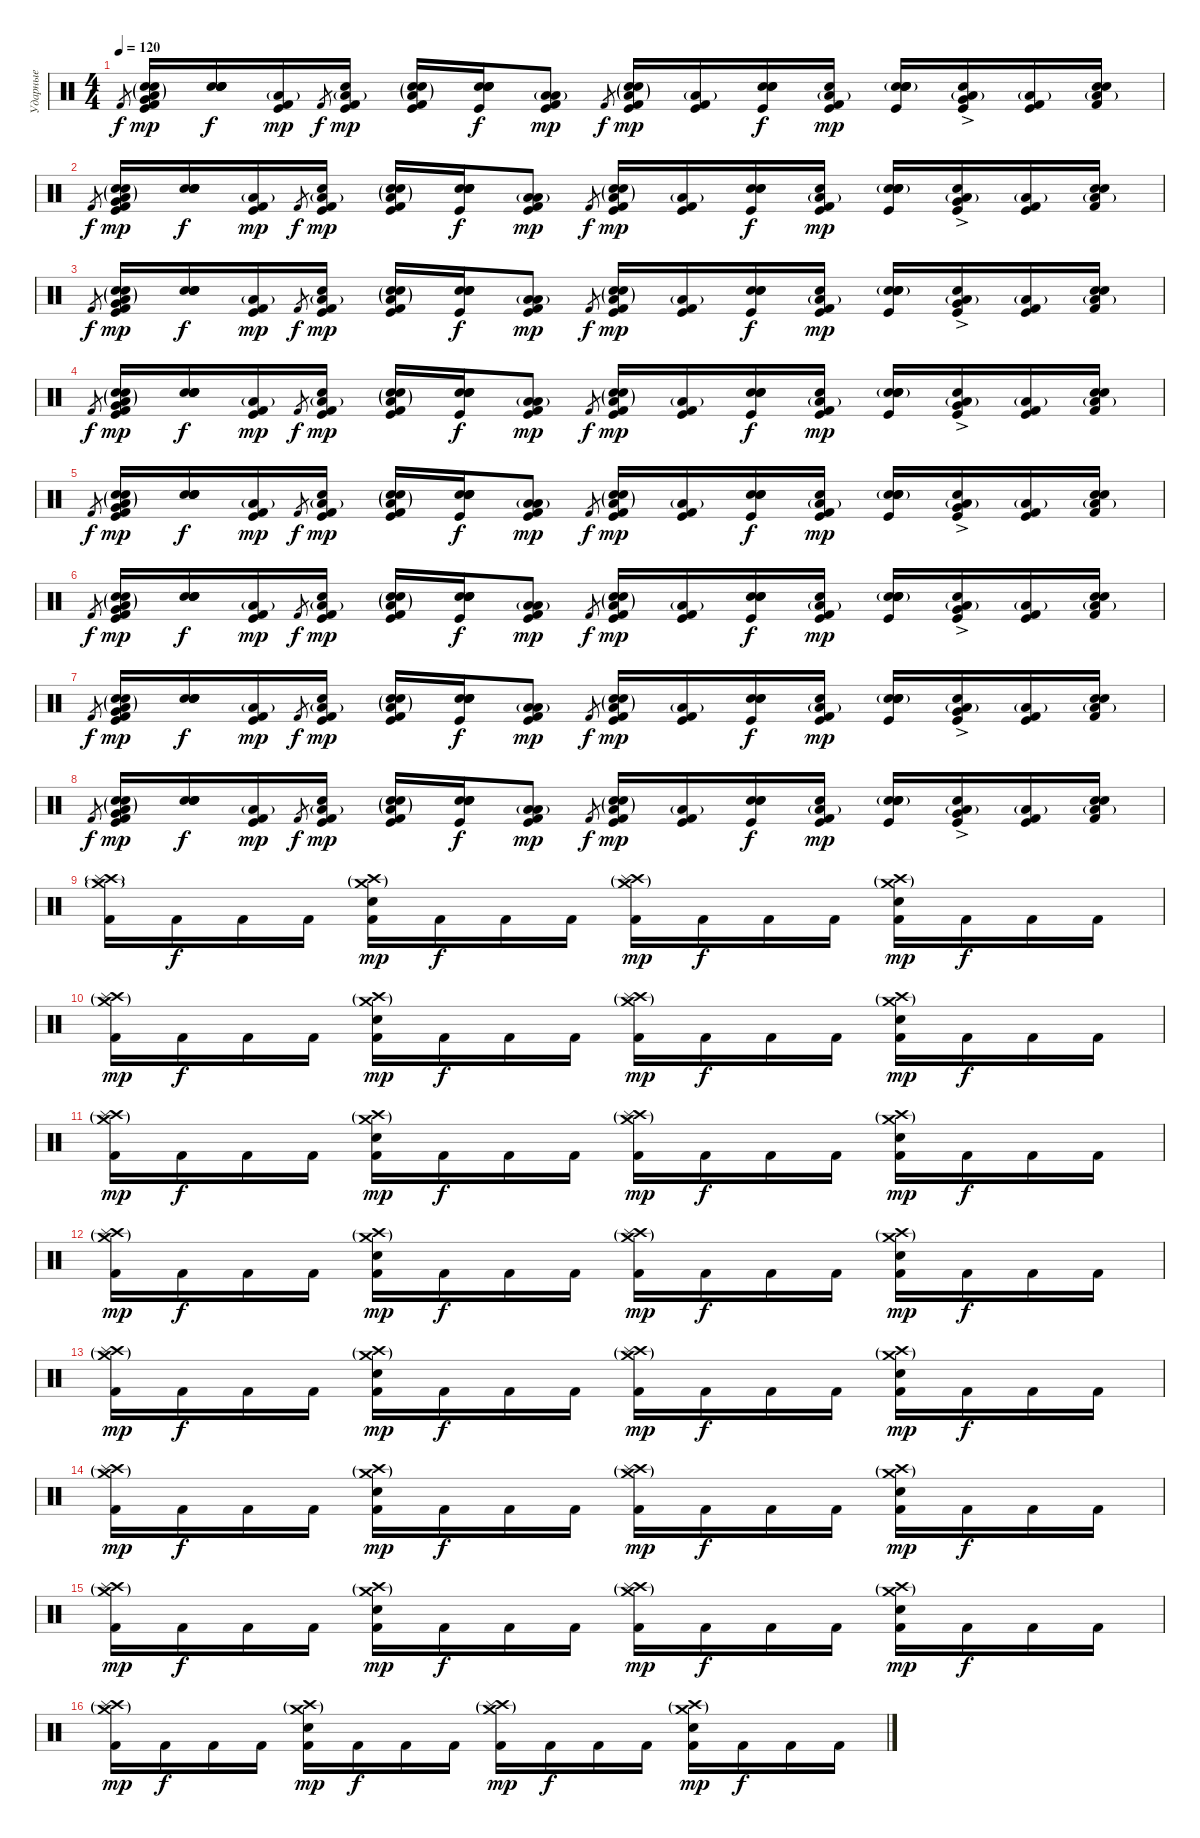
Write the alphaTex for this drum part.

\track ("Ударные" "Ударные") {instrument percussion bank 2}
\staff {score}
\articulation defaults
\ts (4 4)
\tempo 120
\clef neutral
\ks c "Kick (hit) 2".8{gr dy f}
("Kick (hit) 2" "Very Low Tom (hit)" "Kick (hit)" "Snare (hit) 2" "Low Floor Tom (hit)"{g} "Electric Snare (hit)"{g}).16{dy mp} ("Snare (hit)" "Snare (hit)" "Snare (hit)" "Snare (hit)").16{dy f} ("Kick (hit) 2" "Kick (hit)" "Low Floor Tom (hit)"{g}).16{dy mp} "Kick (hit) 2".8{gr dy f} ("Kick (hit) 2" "Kick (hit)" "Snare (hit)" "Low Floor Tom (hit)"{g}).16{dy mp} ("Kick (hit) 2" "Kick (hit)" "Snare (hit) 2" "Low Floor Tom (hit)"{g} "Electric Snare (hit)"{g}).16 ("Snare (hit)" "Snare (hit)" "Kick (hit)" "Snare (hit)" "Snare (hit)").16{dy f} ("Kick (hit) 2" "Low Tom (hit)" "Kick (hit)" "Low Floor Tom (hit)"{g}).8{dy mp} "Kick (hit) 2".8{gr dy f} ("Kick (hit) 2" "Kick (hit)" "Snare (hit) 2" "Low Floor Tom (hit)"{g} "Electric Snare (hit)"{g}).16{dy mp} ("Kick (hit) 2" "Kick (hit)" "Low Floor Tom (hit)"{g}).16 ("Snare (hit)" "Kick (hit)" "Snare (hit)" "Snare (hit)").16{dy f} ("Kick (hit) 2" "Kick (hit)" "Snare (hit)" "Low Floor Tom (hit)"{g}).16{dy mp} ("Snare (hit)" "Kick (hit)" "Snare (hit) 2" "Snare (hit)" "Electric Snare (hit)"{g}).16 ("Snare (hit)" "Very Low Tom (hit)" "Kick (hit)"{ac} "Low Floor Tom (hit)"{g}).16 ("Kick (hit) 2" "Kick (hit)" "Low Floor Tom (hit)"{g}).16 ("Kick (hit) 2" "Snare (hit)" "Snare (hit)" "Low Floor Tom (hit)"{g}).16 |
"Kick (hit) 2".8{gr dy f} ("Kick (hit) 2" "Very Low Tom (hit)" "Kick (hit)" "Snare (hit) 2" "Low Floor Tom (hit)"{g} "Electric Snare (hit)"{g}).16{dy mp} ("Snare (hit)" "Snare (hit)" "Snare (hit)" "Snare (hit)").16{dy f} ("Kick (hit) 2" "Kick (hit)" "Low Floor Tom (hit)"{g}).16{dy mp} "Kick (hit) 2".8{gr dy f} ("Kick (hit) 2" "Kick (hit)" "Snare (hit)" "Low Floor Tom (hit)"{g}).16{dy mp} ("Kick (hit) 2" "Kick (hit)" "Snare (hit) 2" "Low Floor Tom (hit)"{g} "Electric Snare (hit)"{g}).16 ("Snare (hit)" "Snare (hit)" "Kick (hit)" "Snare (hit)" "Snare (hit)").16{dy f} ("Kick (hit) 2" "Low Tom (hit)" "Kick (hit)" "Low Floor Tom (hit)"{g}).8{dy mp} "Kick (hit) 2".8{gr dy f} ("Kick (hit) 2" "Kick (hit)" "Snare (hit) 2" "Low Floor Tom (hit)"{g} "Electric Snare (hit)"{g}).16{dy mp} ("Kick (hit) 2" "Kick (hit)" "Low Floor Tom (hit)"{g}).16 ("Snare (hit)" "Kick (hit)" "Snare (hit)" "Snare (hit)").16{dy f} ("Kick (hit) 2" "Kick (hit)" "Snare (hit)" "Low Floor Tom (hit)"{g}).16{dy mp} ("Snare (hit)" "Kick (hit)" "Snare (hit) 2" "Snare (hit)" "Electric Snare (hit)"{g}).16 ("Snare (hit)" "Very Low Tom (hit)" "Kick (hit)"{ac} "Low Floor Tom (hit)"{g}).16 ("Kick (hit) 2" "Kick (hit)" "Low Floor Tom (hit)"{g}).16 ("Kick (hit) 2" "Snare (hit)" "Snare (hit)" "Low Floor Tom (hit)"{g}).16 |
"Kick (hit) 2".8{gr dy f} ("Kick (hit) 2" "Very Low Tom (hit)" "Kick (hit)" "Snare (hit) 2" "Low Floor Tom (hit)"{g} "Electric Snare (hit)"{g}).16{dy mp} ("Snare (hit)" "Snare (hit)" "Snare (hit)" "Snare (hit)").16{dy f} ("Kick (hit) 2" "Kick (hit)" "Low Floor Tom (hit)"{g}).16{dy mp} "Kick (hit) 2".8{gr dy f} ("Kick (hit) 2" "Kick (hit)" "Snare (hit)" "Low Floor Tom (hit)"{g}).16{dy mp} ("Kick (hit) 2" "Kick (hit)" "Snare (hit) 2" "Low Floor Tom (hit)"{g} "Electric Snare (hit)"{g}).16 ("Snare (hit)" "Snare (hit)" "Kick (hit)" "Snare (hit)" "Snare (hit)").16{dy f} ("Kick (hit) 2" "Low Tom (hit)" "Kick (hit)" "Low Floor Tom (hit)"{g}).8{dy mp} "Kick (hit) 2".8{gr dy f} ("Kick (hit) 2" "Kick (hit)" "Snare (hit) 2" "Low Floor Tom (hit)"{g} "Electric Snare (hit)"{g}).16{dy mp} ("Kick (hit) 2" "Kick (hit)" "Low Floor Tom (hit)"{g}).16 ("Snare (hit)" "Kick (hit)" "Snare (hit)" "Snare (hit)").16{dy f} ("Kick (hit) 2" "Kick (hit)" "Snare (hit)" "Low Floor Tom (hit)"{g}).16{dy mp} ("Snare (hit)" "Kick (hit)" "Snare (hit) 2" "Snare (hit)" "Electric Snare (hit)"{g}).16 ("Snare (hit)" "Very Low Tom (hit)" "Kick (hit)"{ac} "Low Floor Tom (hit)"{g}).16 ("Kick (hit) 2" "Kick (hit)" "Low Floor Tom (hit)"{g}).16 ("Kick (hit) 2" "Snare (hit)" "Snare (hit)" "Low Floor Tom (hit)"{g}).16 |
"Kick (hit) 2".8{gr dy f} ("Kick (hit) 2" "Very Low Tom (hit)" "Kick (hit)" "Snare (hit) 2" "Low Floor Tom (hit)"{g} "Electric Snare (hit)"{g}).16{dy mp} ("Snare (hit)" "Snare (hit)" "Snare (hit)" "Snare (hit)").16{dy f} ("Kick (hit) 2" "Kick (hit)" "Low Floor Tom (hit)"{g}).16{dy mp} "Kick (hit) 2".8{gr dy f} ("Kick (hit) 2" "Kick (hit)" "Snare (hit)" "Low Floor Tom (hit)"{g}).16{dy mp} ("Kick (hit) 2" "Kick (hit)" "Snare (hit) 2" "Low Floor Tom (hit)"{g} "Electric Snare (hit)"{g}).16 ("Snare (hit)" "Snare (hit)" "Kick (hit)" "Snare (hit)" "Snare (hit)").16{dy f} ("Kick (hit) 2" "Low Tom (hit)" "Kick (hit)" "Low Floor Tom (hit)"{g}).8{dy mp} "Kick (hit) 2".8{gr dy f} ("Kick (hit) 2" "Kick (hit)" "Snare (hit) 2" "Low Floor Tom (hit)"{g} "Electric Snare (hit)"{g}).16{dy mp} ("Kick (hit) 2" "Kick (hit)" "Low Floor Tom (hit)"{g}).16 ("Snare (hit)" "Kick (hit)" "Snare (hit)" "Snare (hit)").16{dy f} ("Kick (hit) 2" "Kick (hit)" "Snare (hit)" "Low Floor Tom (hit)"{g}).16{dy mp} ("Snare (hit)" "Kick (hit)" "Snare (hit) 2" "Snare (hit)" "Electric Snare (hit)"{g}).16 ("Snare (hit)" "Very Low Tom (hit)" "Kick (hit)"{ac} "Low Floor Tom (hit)"{g}).16 ("Kick (hit) 2" "Kick (hit)" "Low Floor Tom (hit)"{g}).16 ("Kick (hit) 2" "Snare (hit)" "Snare (hit)" "Low Floor Tom (hit)"{g}).16 |
"Kick (hit) 2".8{gr dy f} ("Kick (hit) 2" "Very Low Tom (hit)" "Kick (hit)" "Snare (hit) 2" "Low Floor Tom (hit)"{g} "Electric Snare (hit)"{g}).16{dy mp} ("Snare (hit)" "Snare (hit)" "Snare (hit)" "Snare (hit)").16{dy f} ("Kick (hit) 2" "Kick (hit)" "Low Floor Tom (hit)"{g}).16{dy mp} "Kick (hit) 2".8{gr dy f} ("Kick (hit) 2" "Kick (hit)" "Snare (hit)" "Low Floor Tom (hit)"{g}).16{dy mp} ("Kick (hit) 2" "Kick (hit)" "Snare (hit) 2" "Low Floor Tom (hit)"{g} "Electric Snare (hit)"{g}).16 ("Snare (hit)" "Snare (hit)" "Kick (hit)" "Snare (hit)" "Snare (hit)").16{dy f} ("Kick (hit) 2" "Low Tom (hit)" "Kick (hit)" "Low Floor Tom (hit)"{g}).8{dy mp} "Kick (hit) 2".8{gr dy f} ("Kick (hit) 2" "Kick (hit)" "Snare (hit) 2" "Low Floor Tom (hit)"{g} "Electric Snare (hit)"{g}).16{dy mp} ("Kick (hit) 2" "Kick (hit)" "Low Floor Tom (hit)"{g}).16 ("Snare (hit)" "Kick (hit)" "Snare (hit)" "Snare (hit)").16{dy f} ("Kick (hit) 2" "Kick (hit)" "Snare (hit)" "Low Floor Tom (hit)"{g}).16{dy mp} ("Snare (hit)" "Kick (hit)" "Snare (hit) 2" "Snare (hit)" "Electric Snare (hit)"{g}).16 ("Snare (hit)" "Very Low Tom (hit)" "Kick (hit)"{ac} "Low Floor Tom (hit)"{g}).16 ("Kick (hit) 2" "Kick (hit)" "Low Floor Tom (hit)"{g}).16 ("Kick (hit) 2" "Snare (hit)" "Snare (hit)" "Low Floor Tom (hit)"{g}).16 |
"Kick (hit) 2".8{gr dy f} ("Kick (hit) 2" "Very Low Tom (hit)" "Kick (hit)" "Snare (hit) 2" "Low Floor Tom (hit)"{g} "Electric Snare (hit)"{g}).16{dy mp} ("Snare (hit)" "Snare (hit)" "Snare (hit)" "Snare (hit)").16{dy f} ("Kick (hit) 2" "Kick (hit)" "Low Floor Tom (hit)"{g}).16{dy mp} "Kick (hit) 2".8{gr dy f} ("Kick (hit) 2" "Kick (hit)" "Snare (hit)" "Low Floor Tom (hit)"{g}).16{dy mp} ("Kick (hit) 2" "Kick (hit)" "Snare (hit) 2" "Low Floor Tom (hit)"{g} "Electric Snare (hit)"{g}).16 ("Snare (hit)" "Snare (hit)" "Kick (hit)" "Snare (hit)" "Snare (hit)").16{dy f} ("Kick (hit) 2" "Low Tom (hit)" "Kick (hit)" "Low Floor Tom (hit)"{g}).8{dy mp} "Kick (hit) 2".8{gr dy f} ("Kick (hit) 2" "Kick (hit)" "Snare (hit) 2" "Low Floor Tom (hit)"{g} "Electric Snare (hit)"{g}).16{dy mp} ("Kick (hit) 2" "Kick (hit)" "Low Floor Tom (hit)"{g}).16 ("Snare (hit)" "Kick (hit)" "Snare (hit)" "Snare (hit)").16{dy f} ("Kick (hit) 2" "Kick (hit)" "Snare (hit)" "Low Floor Tom (hit)"{g}).16{dy mp} ("Snare (hit)" "Kick (hit)" "Snare (hit) 2" "Snare (hit)" "Electric Snare (hit)"{g}).16 ("Snare (hit)" "Very Low Tom (hit)" "Kick (hit)"{ac} "Low Floor Tom (hit)"{g}).16 ("Kick (hit) 2" "Kick (hit)" "Low Floor Tom (hit)"{g}).16 ("Kick (hit) 2" "Snare (hit)" "Snare (hit)" "Low Floor Tom (hit)"{g}).16 |
"Kick (hit) 2".8{gr dy f} ("Kick (hit) 2" "Very Low Tom (hit)" "Kick (hit)" "Snare (hit) 2" "Low Floor Tom (hit)"{g} "Electric Snare (hit)"{g}).16{dy mp} ("Snare (hit)" "Snare (hit)" "Snare (hit)" "Snare (hit)").16{dy f} ("Kick (hit) 2" "Kick (hit)" "Low Floor Tom (hit)"{g}).16{dy mp} "Kick (hit) 2".8{gr dy f} ("Kick (hit) 2" "Kick (hit)" "Snare (hit)" "Low Floor Tom (hit)"{g}).16{dy mp} ("Kick (hit) 2" "Kick (hit)" "Snare (hit) 2" "Low Floor Tom (hit)"{g} "Electric Snare (hit)"{g}).16 ("Snare (hit)" "Snare (hit)" "Kick (hit)" "Snare (hit)" "Snare (hit)").16{dy f} ("Kick (hit) 2" "Low Tom (hit)" "Kick (hit)" "Low Floor Tom (hit)"{g}).8{dy mp} "Kick (hit) 2".8{gr dy f} ("Kick (hit) 2" "Kick (hit)" "Snare (hit) 2" "Low Floor Tom (hit)"{g} "Electric Snare (hit)"{g}).16{dy mp} ("Kick (hit) 2" "Kick (hit)" "Low Floor Tom (hit)"{g}).16 ("Snare (hit)" "Kick (hit)" "Snare (hit)" "Snare (hit)").16{dy f} ("Kick (hit) 2" "Kick (hit)" "Snare (hit)" "Low Floor Tom (hit)"{g}).16{dy mp} ("Snare (hit)" "Kick (hit)" "Snare (hit) 2" "Snare (hit)" "Electric Snare (hit)"{g}).16 ("Snare (hit)" "Very Low Tom (hit)" "Kick (hit)"{ac} "Low Floor Tom (hit)"{g}).16 ("Kick (hit) 2" "Kick (hit)" "Low Floor Tom (hit)"{g}).16 ("Kick (hit) 2" "Snare (hit)" "Snare (hit)" "Low Floor Tom (hit)"{g}).16 |
"Kick (hit) 2".8{gr dy f} ("Kick (hit) 2" "Very Low Tom (hit)" "Kick (hit)" "Snare (hit) 2" "Low Floor Tom (hit)"{g} "Electric Snare (hit)"{g}).16{dy mp} ("Snare (hit)" "Snare (hit)" "Snare (hit)" "Snare (hit)").16{dy f} ("Kick (hit) 2" "Kick (hit)" "Low Floor Tom (hit)"{g}).16{dy mp} "Kick (hit) 2".8{gr dy f} ("Kick (hit) 2" "Kick (hit)" "Snare (hit)" "Low Floor Tom (hit)"{g}).16{dy mp} ("Kick (hit) 2" "Kick (hit)" "Snare (hit) 2" "Low Floor Tom (hit)"{g} "Electric Snare (hit)"{g}).16 ("Snare (hit)" "Snare (hit)" "Kick (hit)" "Snare (hit)" "Snare (hit)").16{dy f} ("Kick (hit) 2" "Low Tom (hit)" "Kick (hit)" "Low Floor Tom (hit)"{g}).8{dy mp} "Kick (hit) 2".8{gr dy f} ("Kick (hit) 2" "Kick (hit)" "Snare (hit) 2" "Low Floor Tom (hit)"{g} "Electric Snare (hit)"{g}).16{dy mp} ("Kick (hit) 2" "Kick (hit)" "Low Floor Tom (hit)"{g}).16 ("Snare (hit)" "Kick (hit)" "Snare (hit)" "Snare (hit)").16{dy f} ("Kick (hit) 2" "Kick (hit)" "Snare (hit)" "Low Floor Tom (hit)"{g}).16{dy mp} ("Snare (hit)" "Kick (hit)" "Snare (hit) 2" "Snare (hit)" "Electric Snare (hit)"{g}).16 ("Snare (hit)" "Very Low Tom (hit)" "Kick (hit)"{ac} "Low Floor Tom (hit)"{g}).16 ("Kick (hit) 2" "Kick (hit)" "Low Floor Tom (hit)"{g}).16 ("Kick (hit) 2" "Snare (hit)" "Snare (hit)" "Low Floor Tom (hit)"{g}).16 |
("Kick (hit) 2" "Crash medium (hit)"{g} "Crash high (hit)"{g} "Splash (hit)").16 "Kick (hit) 2".16{dy f} "Kick (hit) 2".16 "Kick (hit) 2".16 ("Kick (hit) 2" "Snare (hit) 2" "Crash medium (hit)"{g} "Crash high (hit)"{g}).16{dy mp} "Kick (hit) 2".16{dy f} "Kick (hit) 2".16 "Kick (hit) 2".16 ("Kick (hit) 2" "Crash medium (hit)"{g} "Crash high (hit)"{g} "Splash (hit)"{g}).16{dy mp} "Kick (hit) 2".16{dy f} "Kick (hit) 2".16 "Kick (hit) 2".16 ("Kick (hit) 2" "Snare (hit) 2" "Crash medium (hit)"{g} "Crash high (hit)"{g}).16{dy mp} "Kick (hit) 2".16{dy f} "Kick (hit) 2".16 "Kick (hit) 2".16 |
("Kick (hit) 2" "Crash medium (hit)"{g} "Crash high (hit)"{g} "Splash (hit)"{g}).16{dy mp} "Kick (hit) 2".16{dy f} "Kick (hit) 2".16 "Kick (hit) 2".16 ("Kick (hit) 2" "Snare (hit) 2" "Crash medium (hit)"{g} "Crash high (hit)"{g}).16{dy mp} "Kick (hit) 2".16{dy f} "Kick (hit) 2".16 "Kick (hit) 2".16 ("Kick (hit) 2" "Crash medium (hit)"{g} "Crash high (hit)"{g} "Splash (hit)"{g}).16{dy mp} "Kick (hit) 2".16{dy f} "Kick (hit) 2".16 "Kick (hit) 2".16 ("Kick (hit) 2" "Snare (hit) 2" "Crash medium (hit)"{g} "Crash high (hit)"{g}).16{dy mp} "Kick (hit) 2".16{dy f} "Kick (hit) 2".16 "Kick (hit) 2".16 |
("Kick (hit) 2" "Crash medium (hit)"{g} "Crash high (hit)"{g} "Splash (hit)"{g}).16{dy mp} "Kick (hit) 2".16{dy f} "Kick (hit) 2".16 "Kick (hit) 2".16 ("Kick (hit) 2" "Snare (hit) 2" "Crash medium (hit)"{g} "Crash high (hit)"{g}).16{dy mp} "Kick (hit) 2".16{dy f} "Kick (hit) 2".16 "Kick (hit) 2".16 ("Kick (hit) 2" "Crash medium (hit)"{g} "Crash high (hit)"{g} "Splash (hit)"{g}).16{dy mp} "Kick (hit) 2".16{dy f} "Kick (hit) 2".16 "Kick (hit) 2".16 ("Kick (hit) 2" "Snare (hit) 2" "Crash medium (hit)"{g} "Crash high (hit)"{g}).16{dy mp} "Kick (hit) 2".16{dy f} "Kick (hit) 2".16 "Kick (hit) 2".16 |
("Kick (hit) 2" "Crash medium (hit)"{g} "Crash high (hit)"{g} "Splash (hit)"{g}).16{dy mp} "Kick (hit) 2".16{dy f} "Kick (hit) 2".16 "Kick (hit) 2".16 ("Kick (hit) 2" "Snare (hit) 2" "Crash medium (hit)"{g} "Crash high (hit)"{g}).16{dy mp} "Kick (hit) 2".16{dy f} "Kick (hit) 2".16 "Kick (hit) 2".16 ("Kick (hit) 2" "Crash medium (hit)"{g} "Crash high (hit)"{g} "Splash (hit)"{g}).16{dy mp} "Kick (hit) 2".16{dy f} "Kick (hit) 2".16 "Kick (hit) 2".16 ("Kick (hit) 2" "Snare (hit) 2" "Crash medium (hit)"{g} "Crash high (hit)"{g}).16{dy mp} "Kick (hit) 2".16{dy f} "Kick (hit) 2".16 "Kick (hit) 2".16 |
("Kick (hit) 2" "Crash medium (hit)"{g} "Crash high (hit)"{g} "Splash (hit)"{g}).16{dy mp} "Kick (hit) 2".16{dy f} "Kick (hit) 2".16 "Kick (hit) 2".16 ("Kick (hit) 2" "Snare (hit) 2" "Crash medium (hit)"{g} "Crash high (hit)"{g}).16{dy mp} "Kick (hit) 2".16{dy f} "Kick (hit) 2".16 "Kick (hit) 2".16 ("Kick (hit) 2" "Crash medium (hit)"{g} "Crash high (hit)"{g} "Splash (hit)"{g}).16{dy mp} "Kick (hit) 2".16{dy f} "Kick (hit) 2".16 "Kick (hit) 2".16 ("Kick (hit) 2" "Snare (hit) 2" "Crash medium (hit)"{g} "Crash high (hit)"{g}).16{dy mp} "Kick (hit) 2".16{dy f} "Kick (hit) 2".16 "Kick (hit) 2".16 |
("Kick (hit) 2" "Crash medium (hit)"{g} "Crash high (hit)"{g} "Splash (hit)"{g}).16{dy mp} "Kick (hit) 2".16{dy f} "Kick (hit) 2".16 "Kick (hit) 2".16 ("Kick (hit) 2" "Snare (hit) 2" "Crash medium (hit)"{g} "Crash high (hit)"{g}).16{dy mp} "Kick (hit) 2".16{dy f} "Kick (hit) 2".16 "Kick (hit) 2".16 ("Kick (hit) 2" "Crash medium (hit)"{g} "Crash high (hit)"{g} "Splash (hit)"{g}).16{dy mp} "Kick (hit) 2".16{dy f} "Kick (hit) 2".16 "Kick (hit) 2".16 ("Kick (hit) 2" "Snare (hit) 2" "Crash medium (hit)"{g} "Crash high (hit)"{g}).16{dy mp} "Kick (hit) 2".16{dy f} "Kick (hit) 2".16 "Kick (hit) 2".16 |
("Kick (hit) 2" "Crash medium (hit)"{g} "Crash high (hit)"{g} "Splash (hit)"{g}).16{dy mp} "Kick (hit) 2".16{dy f} "Kick (hit) 2".16 "Kick (hit) 2".16 ("Kick (hit) 2" "Snare (hit) 2" "Crash medium (hit)"{g} "Crash high (hit)"{g}).16{dy mp} "Kick (hit) 2".16{dy f} "Kick (hit) 2".16 "Kick (hit) 2".16 ("Kick (hit) 2" "Crash medium (hit)"{g} "Crash high (hit)"{g} "Splash (hit)"{g}).16{dy mp} "Kick (hit) 2".16{dy f} "Kick (hit) 2".16 "Kick (hit) 2".16 ("Kick (hit) 2" "Snare (hit) 2" "Crash medium (hit)"{g} "Crash high (hit)"{g}).16{dy mp} "Kick (hit) 2".16{dy f} "Kick (hit) 2".16 "Kick (hit) 2".16 |
("Kick (hit) 2" "Crash medium (hit)"{g} "Crash high (hit)"{g} "Splash (hit)"{g}).16{dy mp} "Kick (hit) 2".16{dy f} "Kick (hit) 2".16 "Kick (hit) 2".16 ("Kick (hit) 2" "Snare (hit) 2" "Crash medium (hit)"{g} "Crash high (hit)"{g}).16{dy mp} "Kick (hit) 2".16{dy f} "Kick (hit) 2".16 "Kick (hit) 2".16 ("Kick (hit) 2" "Crash medium (hit)"{g} "Crash high (hit)"{g} "Splash (hit)"{g}).16{dy mp} "Kick (hit) 2".16{dy f} "Kick (hit) 2".16 "Kick (hit) 2".16 ("Kick (hit) 2" "Snare (hit) 2" "Crash medium (hit)"{g} "Crash high (hit)"{g}).16{dy mp} "Kick (hit) 2".16{dy f} "Kick (hit) 2".16 "Kick (hit) 2".16
